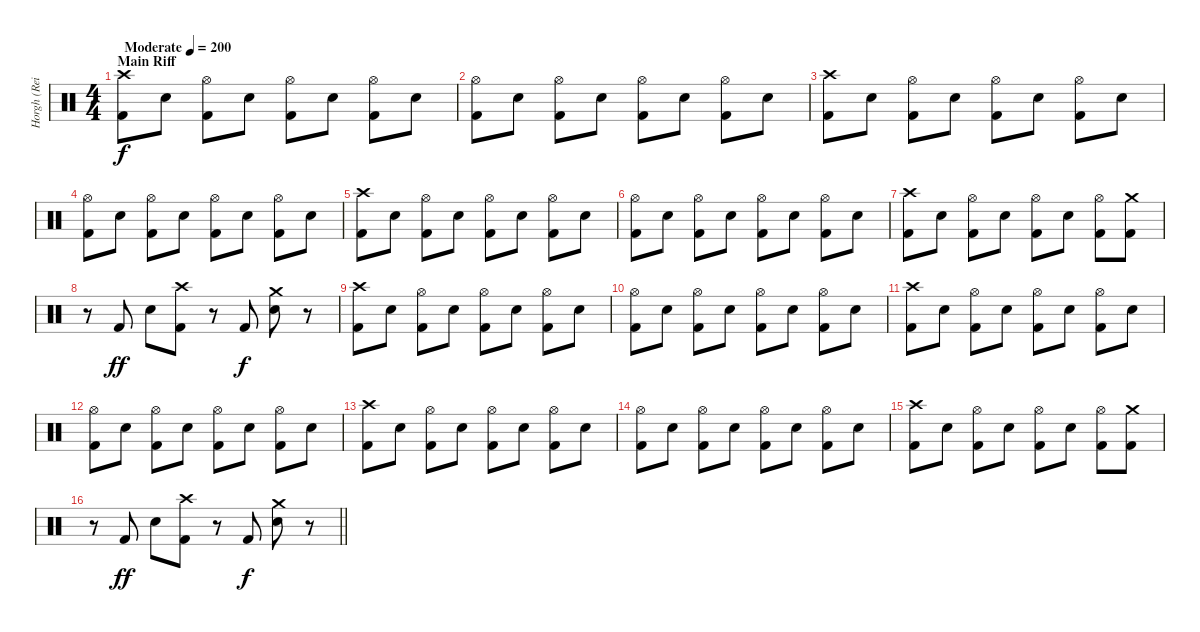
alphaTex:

\track ("Horgh (Reidar Horghagen)" "Horgh (Rei") {instrument percussion}
\staff {score}
\articulation defaults
\ts (4 4)
\section ("" "Main Riff")
\tempo (200 "Moderate")
\clef neutral
\ks c
("Crash high (hit)" "Kick (hit) 2").8{dy f} "Snare (hit) 2".8 ("Hi-Hat (open)" "Kick (hit) 2").8 "Snare (hit) 2".8 ("Hi-Hat (open)" "Kick (hit) 2").8 "Snare (hit) 2".8 ("Hi-Hat (open)" "Kick (hit) 2").8 "Snare (hit) 2".8 |
("Hi-Hat (open)" "Kick (hit) 2").8 "Snare (hit) 2".8 ("Hi-Hat (open)" "Kick (hit) 2").8 "Snare (hit) 2".8 ("Hi-Hat (open)" "Kick (hit) 2").8 "Snare (hit) 2".8 ("Hi-Hat (open)" "Kick (hit) 2").8 "Snare (hit) 2".8 |
("Crash high (hit)" "Kick (hit) 2").8 "Snare (hit) 2".8 ("Hi-Hat (open)" "Kick (hit) 2").8 "Snare (hit) 2".8 ("Hi-Hat (open)" "Kick (hit) 2").8 "Snare (hit) 2".8 ("Hi-Hat (open)" "Kick (hit) 2").8 "Snare (hit) 2".8 |
("Hi-Hat (open)" "Kick (hit) 2").8 "Snare (hit) 2".8 ("Hi-Hat (open)" "Kick (hit) 2").8 "Snare (hit) 2".8 ("Hi-Hat (open)" "Kick (hit) 2").8 "Snare (hit) 2".8 ("Hi-Hat (open)" "Kick (hit) 2").8 "Snare (hit) 2".8 |
("Crash high (hit)" "Kick (hit) 2").8 "Snare (hit) 2".8 ("Hi-Hat (open)" "Kick (hit) 2").8 "Snare (hit) 2".8 ("Hi-Hat (open)" "Kick (hit) 2").8 "Snare (hit) 2".8 ("Hi-Hat (open)" "Kick (hit) 2").8 "Snare (hit) 2".8 |
("Hi-Hat (open)" "Kick (hit) 2").8 "Snare (hit) 2".8 ("Hi-Hat (open)" "Kick (hit) 2").8 "Snare (hit) 2".8 ("Hi-Hat (open)" "Kick (hit) 2").8 "Snare (hit) 2".8 ("Hi-Hat (open)" "Kick (hit) 2").8 "Snare (hit) 2".8 |
("Crash high (hit)" "Kick (hit) 2").8 "Snare (hit) 2".8 ("Hi-Hat (open)" "Kick (hit) 2").8 "Snare (hit) 2".8 ("Hi-Hat (open)" "Kick (hit) 2").8 "Snare (hit) 2".8 ("Hi-Hat (open)" "Kick (hit) 2").8 ("Crash medium (hit)" "Kick (hit) 2").8 |
r.8 "Kick (hit) 2".8{dy ff} "Snare (hit) 2".8 ("Crash high (hit)" "Kick (hit) 2").8 r.8 "Kick (hit) 2".8{dy f} ("Crash medium (hit)" "Snare (hit) 2").8 r.8 |
("Crash high (hit)" "Kick (hit) 2").8 "Snare (hit) 2".8 ("Hi-Hat (open)" "Kick (hit) 2").8 "Snare (hit) 2".8 ("Hi-Hat (open)" "Kick (hit) 2").8 "Snare (hit) 2".8 ("Hi-Hat (open)" "Kick (hit) 2").8 "Snare (hit) 2".8 |
("Hi-Hat (open)" "Kick (hit) 2").8 "Snare (hit) 2".8 ("Hi-Hat (open)" "Kick (hit) 2").8 "Snare (hit) 2".8 ("Hi-Hat (open)" "Kick (hit) 2").8 "Snare (hit) 2".8 ("Hi-Hat (open)" "Kick (hit) 2").8 "Snare (hit) 2".8 |
("Crash high (hit)" "Kick (hit) 2").8 "Snare (hit) 2".8 ("Hi-Hat (open)" "Kick (hit) 2").8 "Snare (hit) 2".8 ("Hi-Hat (open)" "Kick (hit) 2").8 "Snare (hit) 2".8 ("Hi-Hat (open)" "Kick (hit) 2").8 "Snare (hit) 2".8 |
("Hi-Hat (open)" "Kick (hit) 2").8 "Snare (hit) 2".8 ("Hi-Hat (open)" "Kick (hit) 2").8 "Snare (hit) 2".8 ("Hi-Hat (open)" "Kick (hit) 2").8 "Snare (hit) 2".8 ("Hi-Hat (open)" "Kick (hit) 2").8 "Snare (hit) 2".8 |
("Crash high (hit)" "Kick (hit) 2").8 "Snare (hit) 2".8 ("Hi-Hat (open)" "Kick (hit) 2").8 "Snare (hit) 2".8 ("Hi-Hat (open)" "Kick (hit) 2").8 "Snare (hit) 2".8 ("Hi-Hat (open)" "Kick (hit) 2").8 "Snare (hit) 2".8 |
("Hi-Hat (open)" "Kick (hit) 2").8 "Snare (hit) 2".8 ("Hi-Hat (open)" "Kick (hit) 2").8 "Snare (hit) 2".8 ("Hi-Hat (open)" "Kick (hit) 2").8 "Snare (hit) 2".8 ("Hi-Hat (open)" "Kick (hit) 2").8 "Snare (hit) 2".8 |
("Crash high (hit)" "Kick (hit) 2").8 "Snare (hit) 2".8 ("Hi-Hat (open)" "Kick (hit) 2").8 "Snare (hit) 2".8 ("Hi-Hat (open)" "Kick (hit) 2").8 "Snare (hit) 2".8 ("Hi-Hat (open)" "Kick (hit) 2").8 ("Crash medium (hit)" "Kick (hit) 2").8 |
\barLineRight lightlight
r.8 "Kick (hit) 2".8{dy ff} "Snare (hit) 2".8 ("Crash high (hit)" "Kick (hit) 2").8 r.8 "Kick (hit) 2".8{dy f} ("Crash medium (hit)" "Snare (hit) 2").8 r.8
